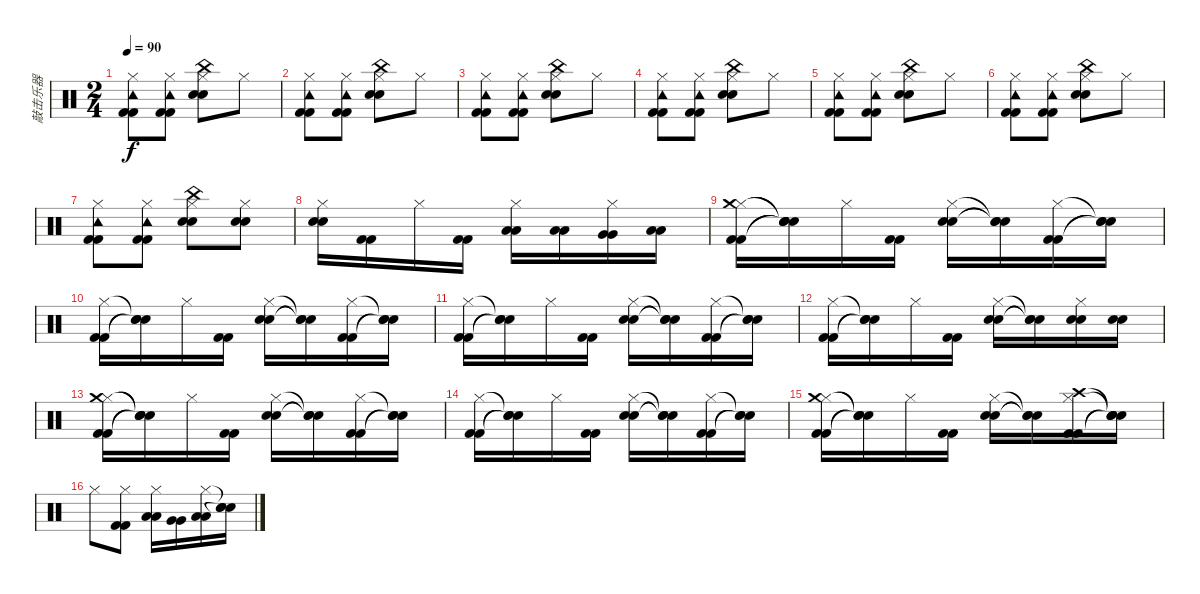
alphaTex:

\track ("敲击乐器" "敲击乐器") {instrument percussion}
\staff {score}
\articulation defaults
\ts (2 4)
\tempo 90
\clef neutral
\ks c
("Hi-Hat (closed)" "Tambourine (hit)" "Kick (hit) 2" "Kick (hit) 2").8{dy f} ("Hi-Hat (closed)" "Tambourine (hit)" "Kick (hit) 2" "Kick (hit) 2").8 ("Hi-Hat (closed)" "China (hit)" "Snare (hit) 2" "Snare (hit) 2").8 "Hi-Hat (closed)".8 |
("Hi-Hat (closed)" "Tambourine (hit)" "Kick (hit) 2" "Kick (hit) 2").8 ("Hi-Hat (closed)" "Tambourine (hit)" "Kick (hit) 2" "Kick (hit) 2").8 ("Hi-Hat (closed)" "China (hit)" "Snare (hit) 2" "Snare (hit) 2").8 "Hi-Hat (closed)".8 |
("Hi-Hat (closed)" "Tambourine (hit)" "Kick (hit) 2" "Kick (hit) 2").8 ("Hi-Hat (closed)" "Tambourine (hit)" "Kick (hit) 2" "Kick (hit) 2").8 ("Hi-Hat (closed)" "China (hit)" "Snare (hit) 2" "Snare (hit) 2").8 "Hi-Hat (closed)".8 |
("Hi-Hat (closed)" "Tambourine (hit)" "Kick (hit) 2" "Kick (hit) 2").8 ("Hi-Hat (closed)" "Tambourine (hit)" "Kick (hit) 2" "Kick (hit) 2").8 ("Hi-Hat (closed)" "China (hit)" "Snare (hit) 2" "Snare (hit) 2").8 "Hi-Hat (closed)".8 |
("Hi-Hat (closed)" "Tambourine (hit)" "Kick (hit) 2" "Kick (hit) 2").8 ("Hi-Hat (closed)" "Tambourine (hit)" "Kick (hit) 2" "Kick (hit) 2").8 ("Hi-Hat (closed)" "China (hit)" "Snare (hit) 2" "Snare (hit) 2").8 "Hi-Hat (closed)".8 |
("Hi-Hat (closed)" "Tambourine (hit)" "Kick (hit) 2" "Kick (hit) 2").8 ("Hi-Hat (closed)" "Tambourine (hit)" "Kick (hit) 2" "Kick (hit) 2").8 ("Hi-Hat (closed)" "China (hit)" "Snare (hit) 2" "Snare (hit) 2").8 "Hi-Hat (closed)".8 |
("Hi-Hat (closed)" "Tambourine (hit)" "Kick (hit) 2" "Kick (hit) 2").8 ("Hi-Hat (closed)" "Tambourine (hit)" "Kick (hit) 2" "Kick (hit) 2").8 ("Hi-Hat (closed)" "China (hit)" "Snare (hit) 2" "Snare (hit) 2").8 ("Hi-Hat (closed)" "Snare (hit) 2" "Snare (hit) 2").8 |
("Hi-Hat (closed)" "Snare (hit) 2" "Snare (hit) 2").16 ("Kick (hit) 2" "Kick (hit) 2").16 "Hi-Hat (closed)".16 ("Kick (hit) 2" "Kick (hit) 2").16 ("Hi-Hat (closed)" "Low Tom (hit)" "Low Tom (hit)").16 ("Low Tom (hit)" "Low Tom (hit)").16 ("Hi-Hat (closed)" "Very Low Tom (hit)" "Very Low Tom (hit)").16 ("Low Floor Tom (hit)" "Low Floor Tom (hit)").16 |
("Hi-Hat (closed)" "Crash medium (hit)" "Kick (hit) 2" "Kick (hit) 2").16 ("Snare (hit)"{t} "Snare (hit)"{t} "Snare (hit)"{t} "Snare (hit)"{t}).16 "Hi-Hat (closed)".16 ("Kick (hit) 2" "Kick (hit) 2").16 ("Hi-Hat (closed)" "Electric Snare (hit)" "Electric Snare (hit)").16 ("Snare (hit)"{t} "Snare (hit)"{t} "Snare (hit)"{t}).16 ("Hi-Hat (closed)" "Kick (hit) 2" "Kick (hit) 2").16 ("Snare (hit)"{t} "Snare (hit)"{t} "Snare (hit)"{t}).16 |
("Hi-Hat (closed)" "Kick (hit) 2" "Kick (hit) 2").16 ("Snare (hit)"{t} "Snare (hit)"{t} "Snare (hit)"{t}).16 "Hi-Hat (closed)".16 ("Kick (hit) 2" "Kick (hit) 2").16 ("Hi-Hat (closed)" "Electric Snare (hit)" "Electric Snare (hit)").16 ("Snare (hit)"{t} "Snare (hit)"{t} "Snare (hit)"{t}).16 ("Hi-Hat (closed)" "Kick (hit) 2" "Kick (hit) 2").16 ("Snare (hit)"{t} "Snare (hit)"{t} "Snare (hit)"{t}).16 |
("Hi-Hat (closed)" "Kick (hit) 2" "Kick (hit) 2").16 ("Snare (hit)"{t} "Snare (hit)"{t} "Snare (hit)"{t}).16 "Hi-Hat (closed)".16 ("Kick (hit) 2" "Kick (hit) 2").16 ("Hi-Hat (closed)" "Electric Snare (hit)" "Electric Snare (hit)").16 ("Snare (hit)"{t} "Snare (hit)"{t} "Snare (hit)"{t}).16 ("Hi-Hat (closed)" "Kick (hit) 2" "Kick (hit) 2").16 ("Snare (hit)"{t} "Snare (hit)"{t} "Snare (hit)"{t}).16 |
("Hi-Hat (closed)" "Kick (hit) 2" "Kick (hit) 2").16 ("Snare (hit)"{t} "Snare (hit)"{t} "Snare (hit)"{t}).16 "Hi-Hat (closed)".16 ("Kick (hit) 2" "Kick (hit) 2").16 ("Hi-Hat (closed)" "Electric Snare (hit)" "Electric Snare (hit)").16 ("Snare (hit)"{t} "Snare (hit)"{t} "Snare (hit)"{t}).16 ("Hi-Hat (closed)" "Snare (hit) 2" "Snare (hit) 2").16 ("Snare (hit) 2" "Snare (hit) 2").16 |
("Hi-Hat (closed)" "Crash medium (hit)" "Kick (hit) 2" "Kick (hit) 2").16 ("Snare (hit)"{t} "Snare (hit)"{t} "Snare (hit)"{t} "Snare (hit)"{t}).16 "Hi-Hat (closed)".16 ("Kick (hit) 2" "Kick (hit) 2").16 ("Hi-Hat (closed)" "Electric Snare (hit)" "Electric Snare (hit)").16 ("Snare (hit)"{t} "Snare (hit)"{t} "Snare (hit)"{t}).16 ("Hi-Hat (closed)" "Kick (hit) 2" "Kick (hit) 2").16 ("Snare (hit)"{t} "Snare (hit)"{t} "Snare (hit)"{t}).16 |
("Hi-Hat (closed)" "Kick (hit) 2" "Kick (hit) 2").16 ("Snare (hit)"{t} "Snare (hit)"{t} "Snare (hit)"{t}).16 "Hi-Hat (closed)".16 ("Kick (hit) 2" "Kick (hit) 2").16 ("Hi-Hat (closed)" "Electric Snare (hit)" "Electric Snare (hit)").16 ("Snare (hit)"{t} "Snare (hit)"{t} "Snare (hit)"{t}).16 ("Hi-Hat (closed)" "Kick (hit) 2" "Kick (hit) 2").16 ("Snare (hit)"{t} "Snare (hit)"{t} "Snare (hit)"{t}).16 |
("Hi-Hat (closed)" "Crash medium (hit)" "Kick (hit) 2" "Kick (hit) 2").16 ("Snare (hit)"{t} "Snare (hit)"{t} "Snare (hit)"{t} "Snare (hit)"{t}).16 "Hi-Hat (closed)".16 ("Kick (hit) 2" "Kick (hit) 2").16 ("Hi-Hat (closed)" "Electric Snare (hit)" "Electric Snare (hit)").16 ("Snare (hit)"{t} "Snare (hit)"{t} "Snare (hit)"{t}).16 ("Hi-Hat (closed)" "Crash high (hit)" "Kick (hit) 2" "Kick (hit) 2").16 ("Snare (hit)"{t} "Snare (hit)"{t} "Snare (hit)"{t} "Snare (hit)"{t}).16 |
"Hi-Hat (closed)".8 ("Hi-Hat (closed)" "Kick (hit) 2" "Kick (hit) 2").8 ("Hi-Hat (closed)" "Low Tom (hit)" "Low Tom (hit)").16 ("Very Low Tom (hit)" "Very Low Tom (hit)").16 ("Hi-Hat (closed)" "Low Floor Tom (hit)" "Low Floor Tom (hit)").16 ("Snare (hit)"{t} "Snare (hit)"{t} "Snare (hit)"{t}).16
